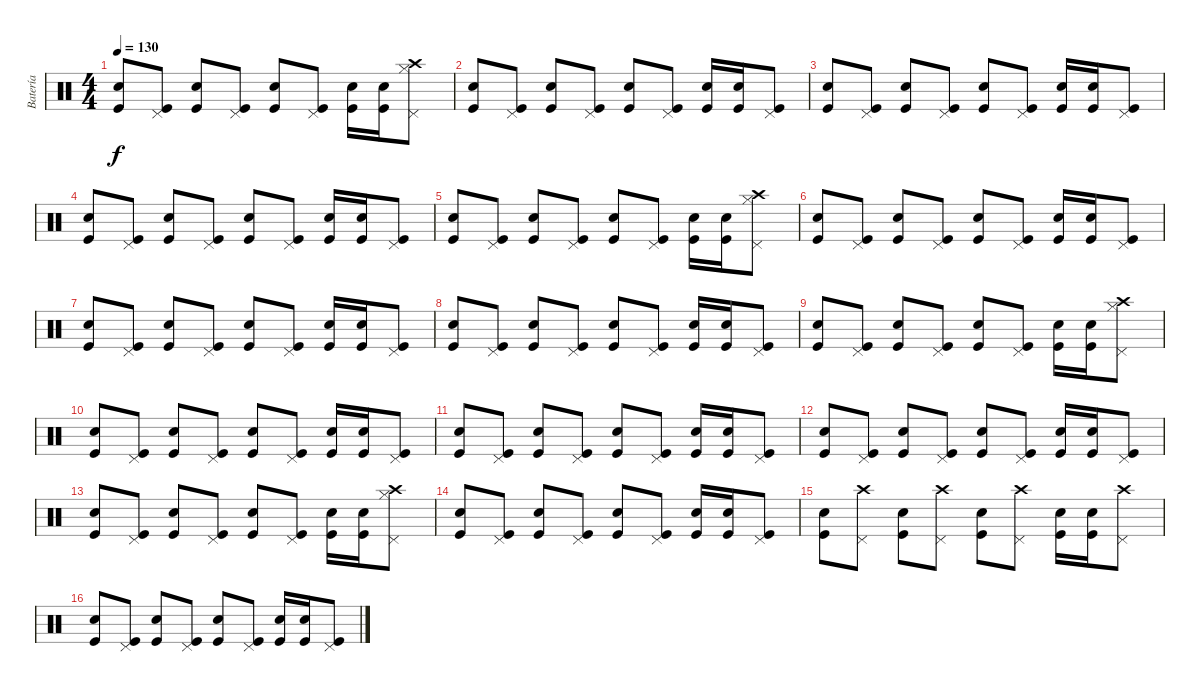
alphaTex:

\track ("Batería" "Batería") {instrument percussion}
\staff {score}
\articulation defaults
\ts (4 4)
\tempo 130
\clef neutral
\ks c
("Kick (hit)" "Electric Snare (hit)").8{dy f} ("Kick (hit)" "Pedal Hi-Hat (hit)").8 ("Kick (hit)" "Electric Snare (hit)").8 ("Kick (hit)" "Pedal Hi-Hat (hit)").8 ("Kick (hit)" "Electric Snare (hit)").8 ("Kick (hit)" "Pedal Hi-Hat (hit)").8 ("Kick (hit)" "Electric Snare (hit)").16 ("Kick (hit)" "Electric Snare (hit)").16 ("Crash high (hit)" "Hi-Hat (closed)" "Pedal Hi-Hat (hit)").8 |
("Kick (hit)" "Electric Snare (hit)").8 ("Kick (hit)" "Pedal Hi-Hat (hit)").8 ("Kick (hit)" "Electric Snare (hit)").8 ("Kick (hit)" "Pedal Hi-Hat (hit)").8 ("Kick (hit)" "Electric Snare (hit)").8 ("Kick (hit)" "Pedal Hi-Hat (hit)").8 ("Kick (hit)" "Electric Snare (hit)").16 ("Kick (hit)" "Electric Snare (hit)").16 ("Kick (hit)" "Pedal Hi-Hat (hit)").8 |
("Kick (hit)" "Electric Snare (hit)").8 ("Kick (hit)" "Pedal Hi-Hat (hit)").8 ("Kick (hit)" "Electric Snare (hit)").8 ("Kick (hit)" "Pedal Hi-Hat (hit)").8 ("Kick (hit)" "Electric Snare (hit)").8 ("Kick (hit)" "Pedal Hi-Hat (hit)").8 ("Kick (hit)" "Electric Snare (hit)").16 ("Kick (hit)" "Electric Snare (hit)").16 ("Kick (hit)" "Pedal Hi-Hat (hit)").8 |
("Kick (hit)" "Electric Snare (hit)").8 ("Kick (hit)" "Pedal Hi-Hat (hit)").8 ("Kick (hit)" "Electric Snare (hit)").8 ("Kick (hit)" "Pedal Hi-Hat (hit)").8 ("Kick (hit)" "Electric Snare (hit)").8 ("Kick (hit)" "Pedal Hi-Hat (hit)").8 ("Kick (hit)" "Electric Snare (hit)").16 ("Kick (hit)" "Electric Snare (hit)").16 ("Kick (hit)" "Pedal Hi-Hat (hit)").8 |
("Kick (hit)" "Electric Snare (hit)").8 ("Kick (hit)" "Pedal Hi-Hat (hit)").8 ("Kick (hit)" "Electric Snare (hit)").8 ("Kick (hit)" "Pedal Hi-Hat (hit)").8 ("Kick (hit)" "Electric Snare (hit)").8 ("Kick (hit)" "Pedal Hi-Hat (hit)").8 ("Kick (hit)" "Electric Snare (hit)").16 ("Kick (hit)" "Electric Snare (hit)").16 ("Crash high (hit)" "Hi-Hat (closed)" "Pedal Hi-Hat (hit)").8 |
("Kick (hit)" "Electric Snare (hit)").8 ("Kick (hit)" "Pedal Hi-Hat (hit)").8 ("Kick (hit)" "Electric Snare (hit)").8 ("Kick (hit)" "Pedal Hi-Hat (hit)").8 ("Kick (hit)" "Electric Snare (hit)").8 ("Kick (hit)" "Pedal Hi-Hat (hit)").8 ("Kick (hit)" "Electric Snare (hit)").16 ("Kick (hit)" "Electric Snare (hit)").16 ("Kick (hit)" "Pedal Hi-Hat (hit)").8 |
("Kick (hit)" "Electric Snare (hit)").8 ("Kick (hit)" "Pedal Hi-Hat (hit)").8 ("Kick (hit)" "Electric Snare (hit)").8 ("Kick (hit)" "Pedal Hi-Hat (hit)").8 ("Kick (hit)" "Electric Snare (hit)").8 ("Kick (hit)" "Pedal Hi-Hat (hit)").8 ("Kick (hit)" "Electric Snare (hit)").16 ("Kick (hit)" "Electric Snare (hit)").16 ("Kick (hit)" "Pedal Hi-Hat (hit)").8 |
("Kick (hit)" "Electric Snare (hit)").8 ("Kick (hit)" "Pedal Hi-Hat (hit)").8 ("Kick (hit)" "Electric Snare (hit)").8 ("Kick (hit)" "Pedal Hi-Hat (hit)").8 ("Kick (hit)" "Electric Snare (hit)").8 ("Kick (hit)" "Pedal Hi-Hat (hit)").8 ("Kick (hit)" "Electric Snare (hit)").16 ("Kick (hit)" "Electric Snare (hit)").16 ("Kick (hit)" "Pedal Hi-Hat (hit)").8 |
("Kick (hit)" "Electric Snare (hit)").8 ("Kick (hit)" "Pedal Hi-Hat (hit)").8 ("Kick (hit)" "Electric Snare (hit)").8 ("Kick (hit)" "Pedal Hi-Hat (hit)").8 ("Kick (hit)" "Electric Snare (hit)").8 ("Kick (hit)" "Pedal Hi-Hat (hit)").8 ("Kick (hit)" "Electric Snare (hit)").16 ("Kick (hit)" "Electric Snare (hit)").16 ("Crash high (hit)" "Hi-Hat (closed)" "Pedal Hi-Hat (hit)").8 |
("Kick (hit)" "Electric Snare (hit)").8 ("Kick (hit)" "Pedal Hi-Hat (hit)").8 ("Kick (hit)" "Electric Snare (hit)").8 ("Kick (hit)" "Pedal Hi-Hat (hit)").8 ("Kick (hit)" "Electric Snare (hit)").8 ("Kick (hit)" "Pedal Hi-Hat (hit)").8 ("Kick (hit)" "Electric Snare (hit)").16 ("Kick (hit)" "Electric Snare (hit)").16 ("Kick (hit)" "Pedal Hi-Hat (hit)").8 |
("Kick (hit)" "Electric Snare (hit)").8 ("Kick (hit)" "Pedal Hi-Hat (hit)").8 ("Kick (hit)" "Electric Snare (hit)").8 ("Kick (hit)" "Pedal Hi-Hat (hit)").8 ("Kick (hit)" "Electric Snare (hit)").8 ("Kick (hit)" "Pedal Hi-Hat (hit)").8 ("Kick (hit)" "Electric Snare (hit)").16 ("Kick (hit)" "Electric Snare (hit)").16 ("Kick (hit)" "Pedal Hi-Hat (hit)").8 |
("Kick (hit)" "Electric Snare (hit)").8 ("Kick (hit)" "Pedal Hi-Hat (hit)").8 ("Kick (hit)" "Electric Snare (hit)").8 ("Kick (hit)" "Pedal Hi-Hat (hit)").8 ("Kick (hit)" "Electric Snare (hit)").8 ("Kick (hit)" "Pedal Hi-Hat (hit)").8 ("Kick (hit)" "Electric Snare (hit)").16 ("Kick (hit)" "Electric Snare (hit)").16 ("Kick (hit)" "Pedal Hi-Hat (hit)").8 |
("Kick (hit)" "Electric Snare (hit)").8 ("Kick (hit)" "Pedal Hi-Hat (hit)").8 ("Kick (hit)" "Electric Snare (hit)").8 ("Kick (hit)" "Pedal Hi-Hat (hit)").8 ("Kick (hit)" "Electric Snare (hit)").8 ("Kick (hit)" "Pedal Hi-Hat (hit)").8 ("Kick (hit)" "Electric Snare (hit)").16 ("Kick (hit)" "Electric Snare (hit)").16 ("Crash high (hit)" "Hi-Hat (closed)" "Pedal Hi-Hat (hit)").8 |
("Kick (hit)" "Electric Snare (hit)").8 ("Kick (hit)" "Pedal Hi-Hat (hit)").8 ("Kick (hit)" "Electric Snare (hit)").8 ("Kick (hit)" "Pedal Hi-Hat (hit)").8 ("Kick (hit)" "Electric Snare (hit)").8 ("Kick (hit)" "Pedal Hi-Hat (hit)").8 ("Kick (hit)" "Electric Snare (hit)").16 ("Kick (hit)" "Electric Snare (hit)").16 ("Kick (hit)" "Pedal Hi-Hat (hit)").8 |
("Kick (hit)" "Electric Snare (hit)").8 ("Crash high (hit)" "Pedal Hi-Hat (hit)").8 ("Kick (hit)" "Electric Snare (hit)").8 ("Crash high (hit)" "Pedal Hi-Hat (hit)").8 ("Kick (hit)" "Electric Snare (hit)").8 ("Crash high (hit)" "Pedal Hi-Hat (hit)").8 ("Kick (hit)" "Electric Snare (hit)").16 ("Kick (hit)" "Electric Snare (hit)").16 ("Crash high (hit)" "Pedal Hi-Hat (hit)").8 |
("Kick (hit)" "Electric Snare (hit)").8 ("Kick (hit)" "Pedal Hi-Hat (hit)").8 ("Kick (hit)" "Electric Snare (hit)").8 ("Kick (hit)" "Pedal Hi-Hat (hit)").8 ("Kick (hit)" "Electric Snare (hit)").8 ("Kick (hit)" "Pedal Hi-Hat (hit)").8 ("Kick (hit)" "Electric Snare (hit)").16 ("Kick (hit)" "Electric Snare (hit)").16 ("Kick (hit)" "Pedal Hi-Hat (hit)").8
